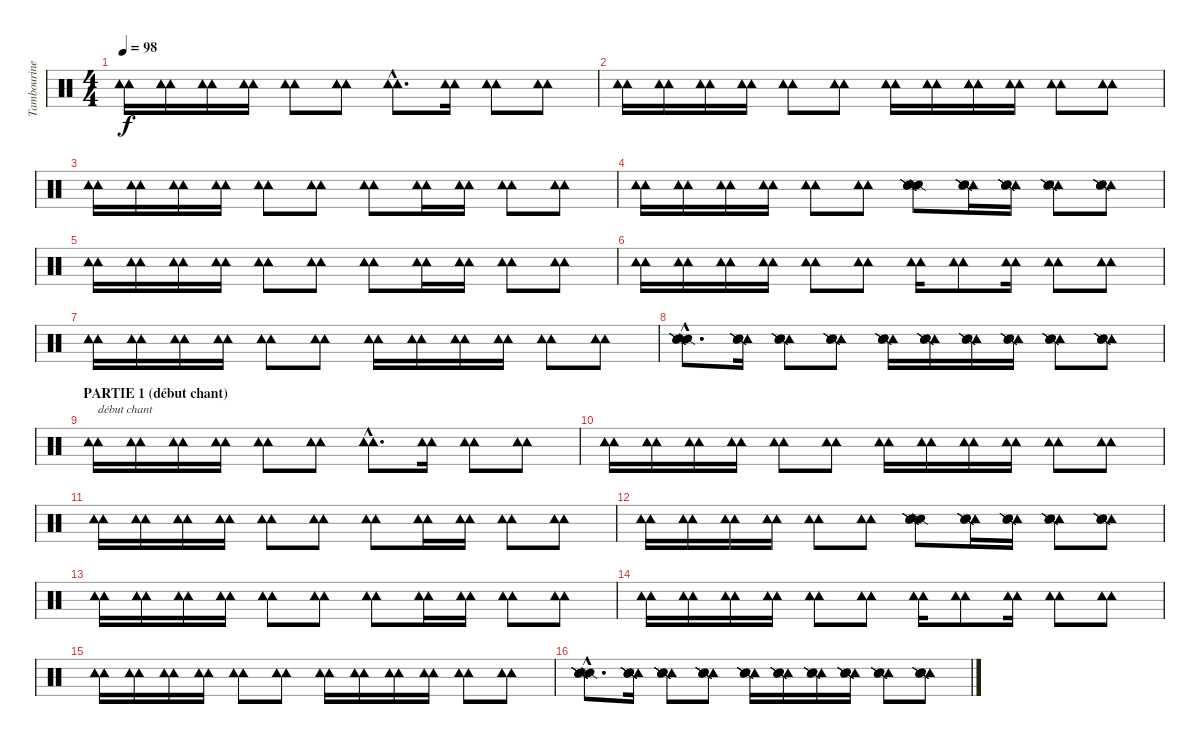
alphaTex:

\track ("Tambourine" "Tambourine") {instrument percussion}
\staff {score}
\articulation defaults
\ts (4 4)
\tempo 98
\clef neutral
\ks c
("Tambourine (hit)" "Tambourine (hit)").16{dy f} ("Tambourine (hit)" "Tambourine (hit)").16 ("Tambourine (hit)" "Tambourine (hit)").16 ("Tambourine (hit)" "Tambourine (hit)").16 ("Tambourine (hit)" "Tambourine (hit)").8 ("Tambourine (hit)" "Tambourine (hit)").8 ("Tambourine (hit)"{hac} "Tambourine (hit)"{hac}).8{d} ("Tambourine (hit)" "Tambourine (hit)").16 ("Tambourine (hit)" "Tambourine (hit)").8 ("Tambourine (hit)" "Tambourine (hit)").8 |
("Tambourine (hit)" "Tambourine (hit)").16 ("Tambourine (hit)" "Tambourine (hit)").16 ("Tambourine (hit)" "Tambourine (hit)").16 ("Tambourine (hit)" "Tambourine (hit)").16 ("Tambourine (hit)" "Tambourine (hit)").8 ("Tambourine (hit)" "Tambourine (hit)").8 ("Tambourine (hit)" "Tambourine (hit)").16 ("Tambourine (hit)" "Tambourine (hit)").16 ("Tambourine (hit)" "Tambourine (hit)").16 ("Tambourine (hit)" "Tambourine (hit)").16 ("Tambourine (hit)" "Tambourine (hit)").8 ("Tambourine (hit)" "Tambourine (hit)").8 |
("Tambourine (hit)" "Tambourine (hit)").16 ("Tambourine (hit)" "Tambourine (hit)").16 ("Tambourine (hit)" "Tambourine (hit)").16 ("Tambourine (hit)" "Tambourine (hit)").16 ("Tambourine (hit)" "Tambourine (hit)").8 ("Tambourine (hit)" "Tambourine (hit)").8 ("Tambourine (hit)" "Tambourine (hit)").8 ("Tambourine (hit)" "Tambourine (hit)").16 ("Tambourine (hit)" "Tambourine (hit)").16 ("Tambourine (hit)" "Tambourine (hit)").8 ("Tambourine (hit)" "Tambourine (hit)").8 |
("Tambourine (hit)" "Tambourine (hit)").16 ("Tambourine (hit)" "Tambourine (hit)").16 ("Tambourine (hit)" "Tambourine (hit)").16 ("Tambourine (hit)" "Tambourine (hit)").16 ("Tambourine (hit)" "Tambourine (hit)").8 ("Tambourine (hit)" "Tambourine (hit)").8 ("Snare (side stick) 2" "Snare (side stick) 2" "Snare (side stick) 2" "Snare (side stick) 2").8 ("Tambourine (hit)" "Snare (side stick) 2" "Snare (side stick) 2" "Snare (side stick) 2").16 ("Tambourine (hit)" "Snare (side stick) 2" "Snare (side stick) 2" "Snare (side stick) 2").16 ("Tambourine (hit)" "Snare (side stick) 2" "Snare (side stick) 2" "Snare (side stick) 2").8 ("Tambourine (hit)" "Snare (side stick) 2" "Snare (side stick) 2" "Snare (side stick) 2").8 |
("Tambourine (hit)" "Tambourine (hit)").16 ("Tambourine (hit)" "Tambourine (hit)").16 ("Tambourine (hit)" "Tambourine (hit)").16 ("Tambourine (hit)" "Tambourine (hit)").16 ("Tambourine (hit)" "Tambourine (hit)").8 ("Tambourine (hit)" "Tambourine (hit)").8 ("Tambourine (hit)" "Tambourine (hit)").8 ("Tambourine (hit)" "Tambourine (hit)").16 ("Tambourine (hit)" "Tambourine (hit)").16 ("Tambourine (hit)" "Tambourine (hit)").8 ("Tambourine (hit)" "Tambourine (hit)").8 |
("Tambourine (hit)" "Tambourine (hit)").16 ("Tambourine (hit)" "Tambourine (hit)").16 ("Tambourine (hit)" "Tambourine (hit)").16 ("Tambourine (hit)" "Tambourine (hit)").16 ("Tambourine (hit)" "Tambourine (hit)").8 ("Tambourine (hit)" "Tambourine (hit)").8 ("Tambourine (hit)" "Tambourine (hit)").16 ("Tambourine (hit)" "Tambourine (hit)").8 ("Tambourine (hit)" "Tambourine (hit)").16 ("Tambourine (hit)" "Tambourine (hit)").8 ("Tambourine (hit)" "Tambourine (hit)").8 |
("Tambourine (hit)" "Tambourine (hit)").16 ("Tambourine (hit)" "Tambourine (hit)").16 ("Tambourine (hit)" "Tambourine (hit)").16 ("Tambourine (hit)" "Tambourine (hit)").16 ("Tambourine (hit)" "Tambourine (hit)").8 ("Tambourine (hit)" "Tambourine (hit)").8 ("Tambourine (hit)" "Tambourine (hit)").16 ("Tambourine (hit)" "Tambourine (hit)").16 ("Tambourine (hit)" "Tambourine (hit)").16 ("Tambourine (hit)" "Tambourine (hit)").16 ("Tambourine (hit)" "Tambourine (hit)").8 ("Tambourine (hit)" "Tambourine (hit)").8 |
("Snare (side stick) 2"{hac} "Snare (side stick) 2"{hac} "Snare (side stick) 2"{hac} "Snare (side stick) 2"{hac}).8{d} ("Tambourine (hit)" "Snare (side stick) 2" "Snare (side stick) 2" "Snare (side stick) 2").16 ("Tambourine (hit)" "Snare (side stick) 2" "Snare (side stick) 2" "Snare (side stick) 2").8 ("Tambourine (hit)" "Snare (side stick) 2" "Snare (side stick) 2" "Snare (side stick) 2").8 ("Tambourine (hit)" "Snare (side stick) 2" "Snare (side stick) 2" "Snare (side stick) 2").16 ("Tambourine (hit)" "Snare (side stick) 2" "Snare (side stick) 2" "Snare (side stick) 2").16 ("Tambourine (hit)" "Snare (side stick) 2" "Snare (side stick) 2" "Snare (side stick) 2").16 ("Tambourine (hit)" "Snare (side stick) 2" "Snare (side stick) 2" "Snare (side stick) 2").16 ("Tambourine (hit)" "Snare (side stick) 2" "Snare (side stick) 2" "Snare (side stick) 2").8 ("Tambourine (hit)" "Snare (side stick) 2" "Snare (side stick) 2" "Snare (side stick) 2").8 |
\section ("" "PARTIE 1 (début chant)")
("Tambourine (hit)" "Tambourine (hit)").16{txt "début chant"} ("Tambourine (hit)" "Tambourine (hit)").16 ("Tambourine (hit)" "Tambourine (hit)").16 ("Tambourine (hit)" "Tambourine (hit)").16 ("Tambourine (hit)" "Tambourine (hit)").8 ("Tambourine (hit)" "Tambourine (hit)").8 ("Tambourine (hit)"{hac} "Tambourine (hit)"{hac}).8{d} ("Tambourine (hit)" "Tambourine (hit)").16 ("Tambourine (hit)" "Tambourine (hit)").8 ("Tambourine (hit)" "Tambourine (hit)").8 |
("Tambourine (hit)" "Tambourine (hit)").16 ("Tambourine (hit)" "Tambourine (hit)").16 ("Tambourine (hit)" "Tambourine (hit)").16 ("Tambourine (hit)" "Tambourine (hit)").16 ("Tambourine (hit)" "Tambourine (hit)").8 ("Tambourine (hit)" "Tambourine (hit)").8 ("Tambourine (hit)" "Tambourine (hit)").16 ("Tambourine (hit)" "Tambourine (hit)").16 ("Tambourine (hit)" "Tambourine (hit)").16 ("Tambourine (hit)" "Tambourine (hit)").16 ("Tambourine (hit)" "Tambourine (hit)").8 ("Tambourine (hit)" "Tambourine (hit)").8 |
("Tambourine (hit)" "Tambourine (hit)").16 ("Tambourine (hit)" "Tambourine (hit)").16 ("Tambourine (hit)" "Tambourine (hit)").16 ("Tambourine (hit)" "Tambourine (hit)").16 ("Tambourine (hit)" "Tambourine (hit)").8 ("Tambourine (hit)" "Tambourine (hit)").8 ("Tambourine (hit)" "Tambourine (hit)").8 ("Tambourine (hit)" "Tambourine (hit)").16 ("Tambourine (hit)" "Tambourine (hit)").16 ("Tambourine (hit)" "Tambourine (hit)").8 ("Tambourine (hit)" "Tambourine (hit)").8 |
("Tambourine (hit)" "Tambourine (hit)").16 ("Tambourine (hit)" "Tambourine (hit)").16 ("Tambourine (hit)" "Tambourine (hit)").16 ("Tambourine (hit)" "Tambourine (hit)").16 ("Tambourine (hit)" "Tambourine (hit)").8 ("Tambourine (hit)" "Tambourine (hit)").8 ("Snare (side stick) 2" "Snare (side stick) 2" "Snare (side stick) 2" "Snare (side stick) 2").8 ("Tambourine (hit)" "Snare (side stick) 2" "Snare (side stick) 2" "Snare (side stick) 2").16 ("Tambourine (hit)" "Snare (side stick) 2" "Snare (side stick) 2" "Snare (side stick) 2").16 ("Tambourine (hit)" "Snare (side stick) 2" "Snare (side stick) 2" "Snare (side stick) 2").8 ("Tambourine (hit)" "Snare (side stick) 2" "Snare (side stick) 2" "Snare (side stick) 2").8 |
("Tambourine (hit)" "Tambourine (hit)").16 ("Tambourine (hit)" "Tambourine (hit)").16 ("Tambourine (hit)" "Tambourine (hit)").16 ("Tambourine (hit)" "Tambourine (hit)").16 ("Tambourine (hit)" "Tambourine (hit)").8 ("Tambourine (hit)" "Tambourine (hit)").8 ("Tambourine (hit)" "Tambourine (hit)").8 ("Tambourine (hit)" "Tambourine (hit)").16 ("Tambourine (hit)" "Tambourine (hit)").16 ("Tambourine (hit)" "Tambourine (hit)").8 ("Tambourine (hit)" "Tambourine (hit)").8 |
("Tambourine (hit)" "Tambourine (hit)").16 ("Tambourine (hit)" "Tambourine (hit)").16 ("Tambourine (hit)" "Tambourine (hit)").16 ("Tambourine (hit)" "Tambourine (hit)").16 ("Tambourine (hit)" "Tambourine (hit)").8 ("Tambourine (hit)" "Tambourine (hit)").8 ("Tambourine (hit)" "Tambourine (hit)").16 ("Tambourine (hit)" "Tambourine (hit)").8 ("Tambourine (hit)" "Tambourine (hit)").16 ("Tambourine (hit)" "Tambourine (hit)").8 ("Tambourine (hit)" "Tambourine (hit)").8 |
("Tambourine (hit)" "Tambourine (hit)").16 ("Tambourine (hit)" "Tambourine (hit)").16 ("Tambourine (hit)" "Tambourine (hit)").16 ("Tambourine (hit)" "Tambourine (hit)").16 ("Tambourine (hit)" "Tambourine (hit)").8 ("Tambourine (hit)" "Tambourine (hit)").8 ("Tambourine (hit)" "Tambourine (hit)").16 ("Tambourine (hit)" "Tambourine (hit)").16 ("Tambourine (hit)" "Tambourine (hit)").16 ("Tambourine (hit)" "Tambourine (hit)").16 ("Tambourine (hit)" "Tambourine (hit)").8 ("Tambourine (hit)" "Tambourine (hit)").8 |
("Snare (side stick) 2"{hac} "Snare (side stick) 2"{hac} "Snare (side stick) 2"{hac} "Snare (side stick) 2"{hac}).8{d} ("Tambourine (hit)" "Snare (side stick) 2" "Snare (side stick) 2" "Snare (side stick) 2").16 ("Tambourine (hit)" "Snare (side stick) 2" "Snare (side stick) 2" "Snare (side stick) 2").8 ("Tambourine (hit)" "Snare (side stick) 2" "Snare (side stick) 2" "Snare (side stick) 2").8 ("Tambourine (hit)" "Snare (side stick) 2" "Snare (side stick) 2" "Snare (side stick) 2").16 ("Tambourine (hit)" "Snare (side stick) 2" "Snare (side stick) 2" "Snare (side stick) 2").16 ("Tambourine (hit)" "Snare (side stick) 2" "Snare (side stick) 2" "Snare (side stick) 2").16 ("Tambourine (hit)" "Snare (side stick) 2" "Snare (side stick) 2" "Snare (side stick) 2").16 ("Tambourine (hit)" "Snare (side stick) 2" "Snare (side stick) 2" "Snare (side stick) 2").8 ("Tambourine (hit)" "Snare (side stick) 2" "Snare (side stick) 2" "Snare (side stick) 2").8
